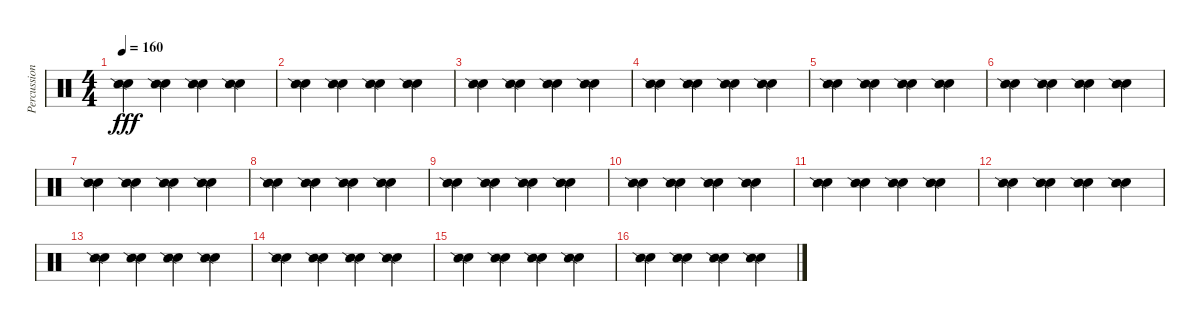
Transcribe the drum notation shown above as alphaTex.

\track ("Percussion 2" "Percussion") {instrument percussion}
\staff {score}
\articulation defaults
\ts (4 4)
\tempo 160
\clef neutral
\ks c
("Hand Clap (hit)" "Snare (side stick) 2").4{dy fff} ("Hand Clap (hit)" "Snare (side stick) 2").4 ("Hand Clap (hit)" "Snare (side stick) 2").4 ("Hand Clap (hit)" "Snare (side stick) 2").4 |
("Hand Clap (hit)" "Snare (side stick) 2").4 ("Hand Clap (hit)" "Snare (side stick) 2").4 ("Hand Clap (hit)" "Snare (side stick) 2").4 ("Hand Clap (hit)" "Snare (side stick) 2").4 |
("Hand Clap (hit)" "Snare (side stick) 2").4 ("Hand Clap (hit)" "Snare (side stick) 2").4 ("Hand Clap (hit)" "Snare (side stick) 2").4 ("Hand Clap (hit)" "Snare (side stick) 2").4 |
("Hand Clap (hit)" "Snare (side stick) 2").4 ("Hand Clap (hit)" "Snare (side stick) 2").4 ("Hand Clap (hit)" "Snare (side stick) 2").4 ("Hand Clap (hit)" "Snare (side stick) 2").4 |
("Hand Clap (hit)" "Snare (side stick) 2").4 ("Hand Clap (hit)" "Snare (side stick) 2").4 ("Hand Clap (hit)" "Snare (side stick) 2").4 ("Hand Clap (hit)" "Snare (side stick) 2").4 |
("Hand Clap (hit)" "Snare (side stick) 2").4 ("Hand Clap (hit)" "Snare (side stick) 2").4 ("Hand Clap (hit)" "Snare (side stick) 2").4 ("Hand Clap (hit)" "Snare (side stick) 2").4 |
("Hand Clap (hit)" "Snare (side stick) 2").4 ("Hand Clap (hit)" "Snare (side stick) 2").4 ("Hand Clap (hit)" "Snare (side stick) 2").4 ("Hand Clap (hit)" "Snare (side stick) 2").4 |
("Hand Clap (hit)" "Snare (side stick) 2").4 ("Hand Clap (hit)" "Snare (side stick) 2").4 ("Hand Clap (hit)" "Snare (side stick) 2").4 ("Hand Clap (hit)" "Snare (side stick) 2").4 |
("Hand Clap (hit)" "Snare (side stick) 2").4 ("Hand Clap (hit)" "Snare (side stick) 2").4 ("Hand Clap (hit)" "Snare (side stick) 2").4 ("Hand Clap (hit)" "Snare (side stick) 2").4 |
("Hand Clap (hit)" "Snare (side stick) 2").4 ("Hand Clap (hit)" "Snare (side stick) 2").4 ("Hand Clap (hit)" "Snare (side stick) 2").4 ("Hand Clap (hit)" "Snare (side stick) 2").4 |
("Hand Clap (hit)" "Snare (side stick) 2").4 ("Hand Clap (hit)" "Snare (side stick) 2").4 ("Hand Clap (hit)" "Snare (side stick) 2").4 ("Hand Clap (hit)" "Snare (side stick) 2").4 |
("Hand Clap (hit)" "Snare (side stick) 2").4 ("Hand Clap (hit)" "Snare (side stick) 2").4 ("Hand Clap (hit)" "Snare (side stick) 2").4 ("Hand Clap (hit)" "Snare (side stick) 2").4 |
("Hand Clap (hit)" "Snare (side stick) 2").4 ("Hand Clap (hit)" "Snare (side stick) 2").4 ("Hand Clap (hit)" "Snare (side stick) 2").4 ("Hand Clap (hit)" "Snare (side stick) 2").4 |
("Hand Clap (hit)" "Snare (side stick) 2").4 ("Hand Clap (hit)" "Snare (side stick) 2").4 ("Hand Clap (hit)" "Snare (side stick) 2").4 ("Hand Clap (hit)" "Snare (side stick) 2").4 |
("Hand Clap (hit)" "Snare (side stick) 2").4 ("Hand Clap (hit)" "Snare (side stick) 2").4 ("Hand Clap (hit)" "Snare (side stick) 2").4 ("Hand Clap (hit)" "Snare (side stick) 2").4 |
("Hand Clap (hit)" "Snare (side stick) 2").4 ("Hand Clap (hit)" "Snare (side stick) 2").4 ("Hand Clap (hit)" "Snare (side stick) 2").4 ("Hand Clap (hit)" "Snare (side stick) 2").4
